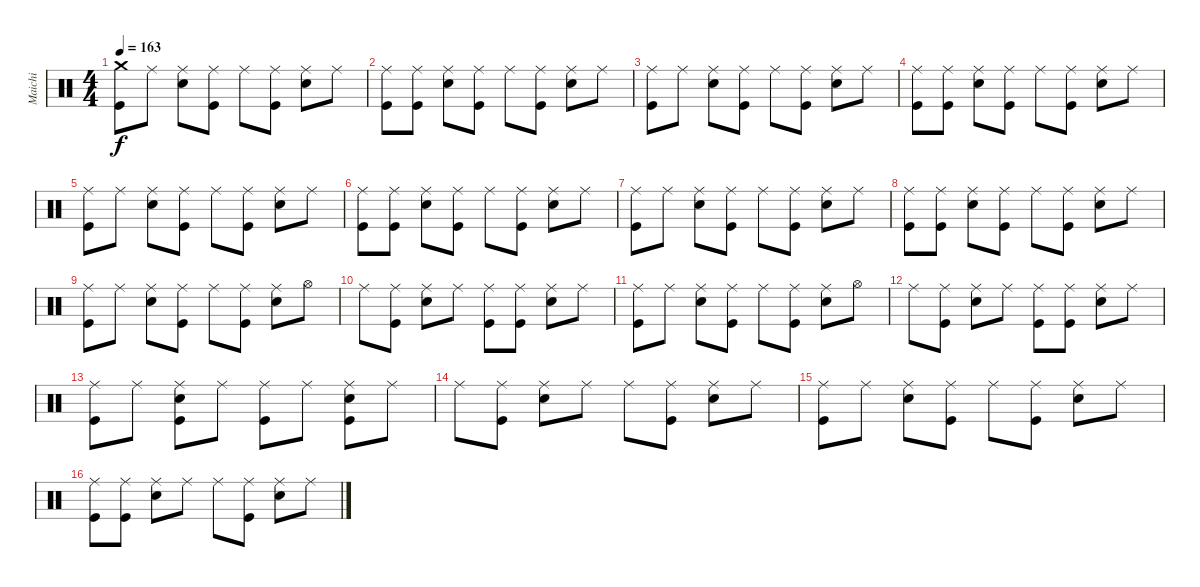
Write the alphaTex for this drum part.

\track ("Maichi" "Maichi") {instrument percussion}
\staff {score}
\articulation defaults
\ts (4 4)
\tempo 163
\clef neutral
\ks c
("Crash medium (hit)" "Kick (hit)").8{dy f} "Ride (middle)".8 ("Electric Snare (hit)" "Ride (middle)").8 ("Kick (hit)" "Ride (middle)").8 "Ride (middle)".8 ("Ride (middle)" "Kick (hit)").8 ("Ride (middle)" "Electric Snare (hit)").8 "Ride (middle)".8 |
("Kick (hit)" "Ride (middle)").8 ("Ride (middle)" "Kick (hit)").8 ("Electric Snare (hit)" "Ride (middle)").8 ("Kick (hit)" "Ride (middle)").8 "Ride (middle)".8 ("Kick (hit)" "Ride (middle)").8 ("Ride (middle)" "Electric Snare (hit)").8 "Ride (middle)".8 |
("Kick (hit)" "Ride (middle)").8 "Ride (middle)".8 ("Electric Snare (hit)" "Ride (middle)").8 ("Ride (middle)" "Kick (hit)").8 "Ride (middle)".8 ("Kick (hit)" "Ride (middle)").8 ("Electric Snare (hit)" "Ride (middle)").8 "Ride (middle)".8 |
("Ride (middle)" "Kick (hit)").8 ("Kick (hit)" "Ride (middle)").8 ("Ride (middle)" "Electric Snare (hit)").8 ("Ride (middle)" "Kick (hit)").8 "Ride (middle)".8 ("Ride (middle)" "Kick (hit)").8 ("Electric Snare (hit)" "Ride (middle)").8 "Ride (middle)".8 |
("Kick (hit)" "Ride (middle)").8 "Ride (middle)".8 ("Ride (middle)" "Electric Snare (hit)").8 ("Kick (hit)" "Ride (middle)").8 "Ride (middle)".8 ("Ride (middle)" "Kick (hit)").8 ("Ride (middle)" "Electric Snare (hit)").8 "Ride (middle)".8 |
("Ride (middle)" "Kick (hit)").8 ("Kick (hit)" "Ride (middle)").8 ("Electric Snare (hit)" "Ride (middle)").8 ("Ride (middle)" "Kick (hit)").8 "Ride (middle)".8 ("Kick (hit)" "Ride (middle)").8 ("Ride (middle)" "Electric Snare (hit)").8 "Ride (middle)".8 |
("Ride (middle)" "Kick (hit)").8 "Ride (middle)".8 ("Electric Snare (hit)" "Ride (middle)").8 ("Ride (middle)" "Kick (hit)").8 "Ride (middle)".8 ("Kick (hit)" "Ride (middle)").8 ("Ride (middle)" "Electric Snare (hit)").8 "Ride (middle)".8 |
("Kick (hit)" "Ride (middle)").8 ("Ride (middle)" "Kick (hit)").8 ("Electric Snare (hit)" "Ride (middle)").8 ("Ride (middle)" "Kick (hit)").8 "Ride (middle)".8 ("Kick (hit)" "Ride (middle)").8 ("Electric Snare (hit)" "Ride (middle)").8 "Ride (middle)".8 |
("Kick (hit)" "Ride (middle)").8 "Ride (middle)".8 ("Electric Snare (hit)" "Ride (middle)").8 ("Ride (middle)" "Kick (hit)").8 "Ride (middle)".8 ("Kick (hit)" "Ride (middle)").8 ("Ride (middle)" "Electric Snare (hit)").8 "Hi-Hat (open)".8 |
"Ride (middle)".8 ("Kick (hit)" "Ride (middle)").8 ("Ride (middle)" "Electric Snare (hit)").8 "Ride (middle)".8 ("Kick (hit)" "Ride (middle)").8 ("Ride (middle)" "Kick (hit)").8 ("Ride (middle)" "Electric Snare (hit)").8 "Ride (middle)".8 |
("Ride (middle)" "Kick (hit)").8 "Ride (middle)".8 ("Ride (middle)" "Electric Snare (hit)").8 ("Kick (hit)" "Ride (middle)").8 "Ride (middle)".8 ("Kick (hit)" "Ride (middle)").8 ("Electric Snare (hit)" "Ride (middle)").8 "Hi-Hat (open)".8 |
"Ride (middle)".8 ("Ride (middle)" "Kick (hit)").8 ("Ride (middle)" "Electric Snare (hit)").8 "Ride (middle)".8 ("Kick (hit)" "Ride (middle)").8 ("Ride (middle)" "Kick (hit)").8 ("Ride (middle)" "Electric Snare (hit)").8 "Ride (middle)".8 |
("Ride (middle)" "Kick (hit)").8 "Ride (middle)".8 ("Ride (middle)" "Electric Snare (hit)" "Kick (hit)").8 "Ride (middle)".8 ("Kick (hit)" "Ride (middle)").8 "Ride (middle)".8 ("Ride (middle)" "Kick (hit)" "Electric Snare (hit)").8 "Ride (middle)".8 |
"Ride (middle)".8 ("Ride (middle)" "Kick (hit)").8 ("Ride (middle)" "Electric Snare (hit)").8 "Ride (middle)".8 "Ride (middle)".8 ("Ride (middle)" "Kick (hit)").8 ("Electric Snare (hit)" "Ride (middle)").8 "Ride (middle)".8 |
("Kick (hit)" "Ride (middle)").8 "Ride (middle)".8 ("Ride (middle)" "Electric Snare (hit)").8 ("Ride (middle)" "Kick (hit)").8 "Ride (middle)".8 ("Kick (hit)" "Ride (middle)").8 ("Electric Snare (hit)" "Ride (middle)").8 "Ride (middle)".8 |
("Kick (hit)" "Ride (middle)").8 ("Ride (middle)" "Kick (hit)").8 ("Ride (middle)" "Electric Snare (hit)").8 "Ride (middle)".8 "Ride (middle)".8 ("Ride (middle)" "Kick (hit)").8 ("Electric Snare (hit)" "Ride (middle)").8 "Ride (middle)".8
